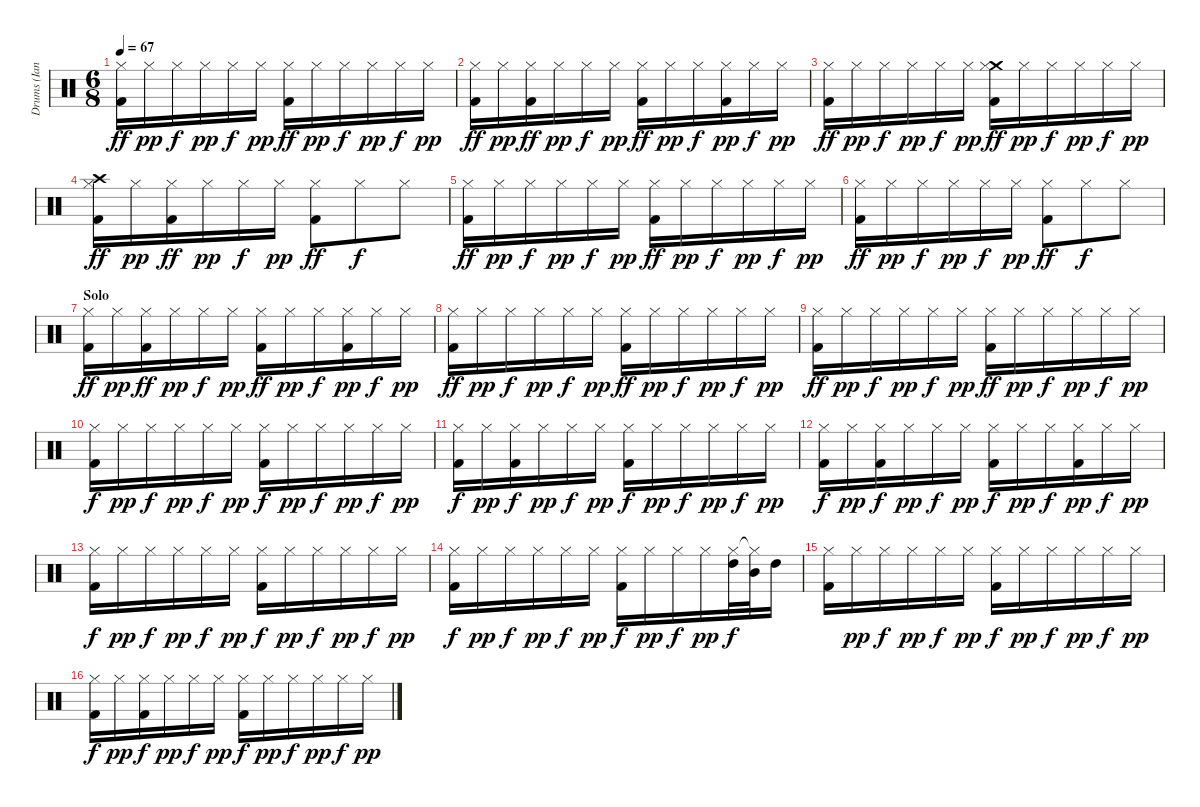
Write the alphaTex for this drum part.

\track ("Drums (Ian Mosley)" "Drums (Ian") {instrument percussion}
\staff {score}
\articulation defaults
\ts (6 8)
\tempo 67
\clef neutral
\ks c
("Kick (hit) 2" "Hi-Hat (closed)").16{dy ff} "Hi-Hat (closed)".16{dy pp} "Hi-Hat (closed)".16{dy f} "Hi-Hat (closed)".16{dy pp} "Hi-Hat (closed)".16{dy f} "Hi-Hat (closed)".16{dy pp} ("Kick (hit) 2" "Hi-Hat (closed)").16{dy ff} "Hi-Hat (closed)".16{dy pp} "Hi-Hat (closed)".16{dy f} "Hi-Hat (closed)".16{dy pp} "Hi-Hat (closed)".16{dy f} "Hi-Hat (closed)".16{dy pp} |
("Kick (hit) 2" "Hi-Hat (closed)").16{dy ff} "Hi-Hat (closed)".16{dy pp} ("Kick (hit) 2" "Hi-Hat (closed)").16{dy ff} "Hi-Hat (closed)".16{dy pp} "Hi-Hat (closed)".16{dy f} "Hi-Hat (closed)".16{dy pp} ("Kick (hit) 2" "Hi-Hat (closed)").16{dy ff} "Hi-Hat (closed)".16{dy pp} "Hi-Hat (closed)".16{dy f} ("Kick (hit) 2" "Hi-Hat (closed)").16{dy pp} "Hi-Hat (closed)".16{dy f} "Hi-Hat (closed)".16{dy pp} |
("Kick (hit) 2" "Hi-Hat (closed)").16{dy ff} "Hi-Hat (closed)".16{dy pp} "Hi-Hat (closed)".16{dy f} "Hi-Hat (closed)".16{dy pp} "Hi-Hat (closed)".16{dy f} "Hi-Hat (closed)".16{dy pp} ("Crash medium (hit)" "Kick (hit) 2" "Hi-Hat (closed)").16{dy ff} "Hi-Hat (closed)".16{dy pp} "Hi-Hat (closed)".16{dy f} "Hi-Hat (closed)".16{dy pp} "Hi-Hat (closed)".16{dy f} "Hi-Hat (closed)".16{dy pp} |
("Crash high (hit)" "Kick (hit) 2" "Hi-Hat (closed)").16{dy ff} "Hi-Hat (closed)".16{dy pp} ("Kick (hit) 2" "Hi-Hat (closed)").16{dy ff} "Hi-Hat (closed)".16{dy pp} "Hi-Hat (closed)".16{dy f} "Hi-Hat (closed)".16{dy pp} ("Kick (hit) 2" "Hi-Hat (closed)").8{dy ff} "Hi-Hat (closed)".8{dy f} "Hi-Hat (closed)".8 |
("Kick (hit) 2" "Hi-Hat (closed)").16{dy ff} "Hi-Hat (closed)".16{dy pp} "Hi-Hat (closed)".16{dy f} "Hi-Hat (closed)".16{dy pp} "Hi-Hat (closed)".16{dy f} "Hi-Hat (closed)".16{dy pp} ("Kick (hit) 2" "Hi-Hat (closed)").16{dy ff} "Hi-Hat (closed)".16{dy pp} "Hi-Hat (closed)".16{dy f} "Hi-Hat (closed)".16{dy pp} "Hi-Hat (closed)".16{dy f} "Hi-Hat (closed)".16{dy pp} |
("Kick (hit) 2" "Hi-Hat (closed)").16{dy ff} "Hi-Hat (closed)".16{dy pp} "Hi-Hat (closed)".16{dy f} "Hi-Hat (closed)".16{dy pp} "Hi-Hat (closed)".16{dy f} "Hi-Hat (closed)".16{dy pp} ("Kick (hit) 2" "Hi-Hat (closed)").8{dy ff} "Hi-Hat (closed)".8{dy f} "Hi-Hat (closed)".8 |
\section ("" "Solo")
("Kick (hit) 2" "Hi-Hat (closed)").16{dy ff} "Hi-Hat (closed)".16{dy pp} ("Kick (hit) 2" "Hi-Hat (closed)").16{dy ff} "Hi-Hat (closed)".16{dy pp} "Hi-Hat (closed)".16{dy f} "Hi-Hat (closed)".16{dy pp} ("Kick (hit) 2" "Hi-Hat (closed)").16{dy ff} "Hi-Hat (closed)".16{dy pp} "Hi-Hat (closed)".16{dy f} ("Kick (hit) 2" "Hi-Hat (closed)").16{dy pp} "Hi-Hat (closed)".16{dy f} "Hi-Hat (closed)".16{dy pp} |
("Kick (hit) 2" "Hi-Hat (closed)").16{dy ff} "Hi-Hat (closed)".16{dy pp} "Hi-Hat (closed)".16{dy f} "Hi-Hat (closed)".16{dy pp} "Hi-Hat (closed)".16{dy f} "Hi-Hat (closed)".16{dy pp} ("Kick (hit) 2" "Hi-Hat (closed)").16{dy ff} "Hi-Hat (closed)".16{dy pp} "Hi-Hat (closed)".16{dy f} "Hi-Hat (closed)".16{dy pp} "Hi-Hat (closed)".16{dy f} "Hi-Hat (closed)".16{dy pp} |
("Kick (hit) 2" "Hi-Hat (closed)").16{dy ff} "Hi-Hat (closed)".16{dy pp} "Hi-Hat (closed)".16{dy f} "Hi-Hat (closed)".16{dy pp} "Hi-Hat (closed)".16{dy f} "Hi-Hat (closed)".16{dy pp} ("Kick (hit) 2" "Hi-Hat (closed)").16{dy ff} "Hi-Hat (closed)".16{dy pp} "Hi-Hat (closed)".16{dy f} "Hi-Hat (closed)".16{dy pp} "Hi-Hat (closed)".16{dy f} "Hi-Hat (closed)".16{dy pp} |
("Kick (hit) 2" "Hi-Hat (closed)").16{dy f} "Hi-Hat (closed)".16{dy pp} "Hi-Hat (closed)".16{dy f} "Hi-Hat (closed)".16{dy pp} "Hi-Hat (closed)".16{dy f} "Hi-Hat (closed)".16{dy pp} ("Kick (hit) 2" "Hi-Hat (closed)").16{dy f} "Hi-Hat (closed)".16{dy pp} "Hi-Hat (closed)".16{dy f} "Hi-Hat (closed)".16{dy pp} "Hi-Hat (closed)".16{dy f} "Hi-Hat (closed)".16{dy pp} |
("Kick (hit) 2" "Hi-Hat (closed)").16{dy f} "Hi-Hat (closed)".16{dy pp} ("Kick (hit) 2" "Hi-Hat (closed)").16{dy f} "Hi-Hat (closed)".16{dy pp} "Hi-Hat (closed)".16{dy f} "Hi-Hat (closed)".16{dy pp} ("Kick (hit) 2" "Hi-Hat (closed)").16{dy f} "Hi-Hat (closed)".16{dy pp} "Hi-Hat (closed)".16{dy f} "Hi-Hat (closed)".16{dy pp} "Hi-Hat (closed)".16{dy f} "Hi-Hat (closed)".16{dy pp} |
("Kick (hit) 2" "Hi-Hat (closed)").16{dy f} "Hi-Hat (closed)".16{dy pp} ("Kick (hit) 2" "Hi-Hat (closed)").16{dy f} "Hi-Hat (closed)".16{dy pp} "Hi-Hat (closed)".16{dy f} "Hi-Hat (closed)".16{dy pp} ("Kick (hit) 2" "Hi-Hat (closed)").16{dy f} "Hi-Hat (closed)".16{dy pp} "Hi-Hat (closed)".16{dy f} ("Kick (hit) 2" "Hi-Hat (closed)").16{dy pp} "Hi-Hat (closed)".16{dy f} "Hi-Hat (closed)".16{dy pp} |
("Kick (hit) 2" "Hi-Hat (closed)").16{dy f} "Hi-Hat (closed)".16{dy pp} "Hi-Hat (closed)".16{dy f} "Hi-Hat (closed)".16{dy pp} "Hi-Hat (closed)".16{dy f} "Hi-Hat (closed)".16{dy pp} ("Kick (hit) 2" "Hi-Hat (closed)").16{dy f} "Hi-Hat (closed)".16{dy pp} "Hi-Hat (closed)".16{dy f} "Hi-Hat (closed)".16{dy pp} "Hi-Hat (closed)".16{dy f} "Hi-Hat (closed)".16{dy pp} |
("Kick (hit) 2" "Hi-Hat (closed)").16{dy f} "Hi-Hat (closed)".16{dy pp} "Hi-Hat (closed)".16{dy f} "Hi-Hat (closed)".16{dy pp} "Hi-Hat (closed)".16{dy f} "Hi-Hat (closed)".16{dy pp} ("Kick (hit) 2" "Hi-Hat (closed)").16{dy f} "Hi-Hat (closed)".16{dy pp} "Hi-Hat (closed)".16{dy f} "Hi-Hat (closed)".16{dy pp} ("High Tom (hit)" "Hi-Hat (closed)").32{dy f} ("Mid Tom (hit)" "Hi-Hat (closed)"{t}).32 "High Tom (hit)".16 |
("Kick (hit) 2" "Hi-Hat (closed)").16 "Hi-Hat (closed)".16{dy pp} "Hi-Hat (closed)".16{dy f} "Hi-Hat (closed)".16{dy pp} "Hi-Hat (closed)".16{dy f} "Hi-Hat (closed)".16{dy pp} ("Kick (hit) 2" "Hi-Hat (closed)").16{dy f} "Hi-Hat (closed)".16{dy pp} "Hi-Hat (closed)".16{dy f} "Hi-Hat (closed)".16{dy pp} "Hi-Hat (closed)".16{dy f} "Hi-Hat (closed)".16{dy pp} |
("Kick (hit) 2" "Hi-Hat (closed)").16{dy f} "Hi-Hat (closed)".16{dy pp} ("Kick (hit) 2" "Hi-Hat (closed)").16{dy f} "Hi-Hat (closed)".16{dy pp} "Hi-Hat (closed)".16{dy f} "Hi-Hat (closed)".16{dy pp} ("Kick (hit) 2" "Hi-Hat (closed)").16{dy f} "Hi-Hat (closed)".16{dy pp} "Hi-Hat (closed)".16{dy f} "Hi-Hat (closed)".16{dy pp} "Hi-Hat (closed)".16{dy f} "Hi-Hat (closed)".16{dy pp}
